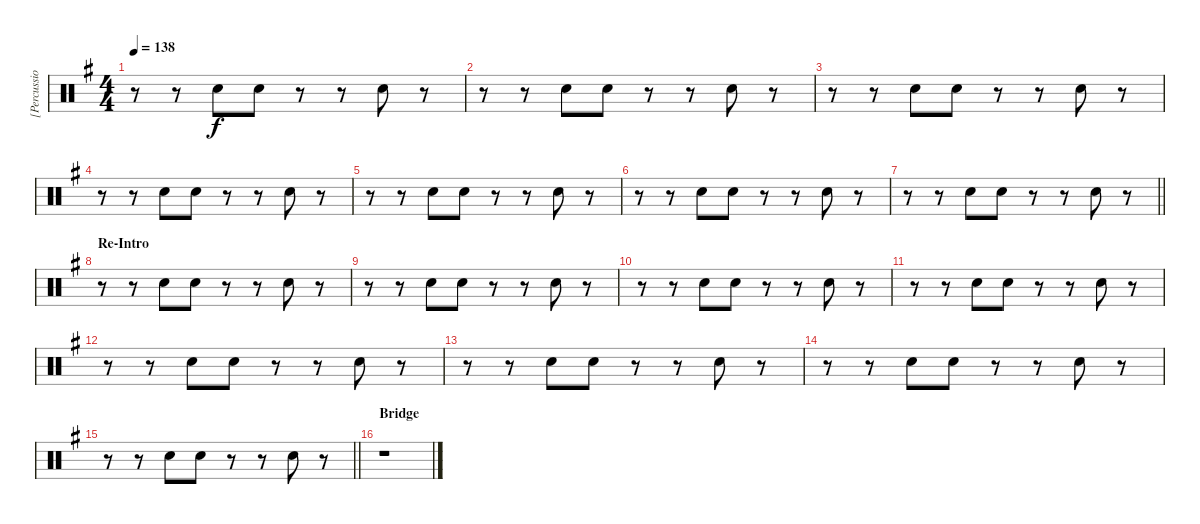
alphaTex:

\track ("[Percussion]" "[Percussio") {instrument percussion}
\staff {score}
\articulation defaults
\ts (4 4)
\tempo 138
\clef neutral
\ks eminor
r.8{dy f} r.8 "Hand Clap (hit)".8 "Hand Clap (hit)".8 r.8 r.8 "Hand Clap (hit)".8 r.8 |
r.8 r.8 "Hand Clap (hit)".8 "Hand Clap (hit)".8 r.8 r.8 "Hand Clap (hit)".8 r.8 |
r.8 r.8 "Hand Clap (hit)".8 "Hand Clap (hit)".8 r.8 r.8 "Hand Clap (hit)".8 r.8 |
r.8 r.8 "Hand Clap (hit)".8 "Hand Clap (hit)".8 r.8 r.8 "Hand Clap (hit)".8 r.8 |
r.8 r.8 "Hand Clap (hit)".8 "Hand Clap (hit)".8 r.8 r.8 "Hand Clap (hit)".8 r.8 |
r.8 r.8 "Hand Clap (hit)".8 "Hand Clap (hit)".8 r.8 r.8 "Hand Clap (hit)".8 r.8 |
\barLineRight lightlight
r.8 r.8 "Hand Clap (hit)".8 "Hand Clap (hit)".8 r.8 r.8 "Hand Clap (hit)".8 r.8 |
\section ("" "Re-Intro")
r.8 r.8 "Hand Clap (hit)".8 "Hand Clap (hit)".8 r.8 r.8 "Hand Clap (hit)".8 r.8 |
r.8 r.8 "Hand Clap (hit)".8 "Hand Clap (hit)".8 r.8 r.8 "Hand Clap (hit)".8 r.8 |
r.8 r.8 "Hand Clap (hit)".8 "Hand Clap (hit)".8 r.8 r.8 "Hand Clap (hit)".8 r.8 |
r.8 r.8 "Hand Clap (hit)".8 "Hand Clap (hit)".8 r.8 r.8 "Hand Clap (hit)".8 r.8 |
r.8 r.8 "Hand Clap (hit)".8 "Hand Clap (hit)".8 r.8 r.8 "Hand Clap (hit)".8 r.8 |
r.8 r.8 "Hand Clap (hit)".8 "Hand Clap (hit)".8 r.8 r.8 "Hand Clap (hit)".8 r.8 |
r.8 r.8 "Hand Clap (hit)".8 "Hand Clap (hit)".8 r.8 r.8 "Hand Clap (hit)".8 r.8 |
\barLineRight lightlight
r.8 r.8 "Hand Clap (hit)".8 "Hand Clap (hit)".8 r.8 r.8 "Hand Clap (hit)".8 r.8 |
\section ("" "Bridge")
r.1
